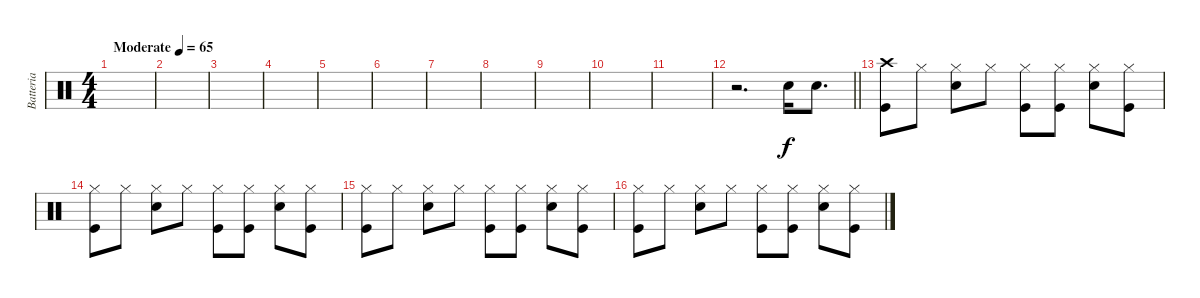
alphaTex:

\track ("Batteria" "Batteria") {instrument percussion}
\staff {score}
\articulation defaults
\ts (4 4)
\tempo (65 "Moderate")
\clef neutral
\ks c
|
|
|
|
|
|
|
|
|
|
|
\barLineRight lightlight
r.2{d} "Snare (hit) 2".16 "Snare (hit) 2".8{d} |
("Kick (hit)" "Crash high (hit)").8 "Hi-Hat (closed)".8 ("Snare (hit) 2" "Hi-Hat (closed)").8 "Hi-Hat (closed)".8 ("Kick (hit)" "Hi-Hat (closed)").8 ("Kick (hit)" "Hi-Hat (closed)").8 ("Snare (hit) 2" "Hi-Hat (closed)").8 ("Kick (hit)" "Hi-Hat (closed)").8 |
("Kick (hit)" "Hi-Hat (closed)").8 "Hi-Hat (closed)".8 ("Snare (hit) 2" "Hi-Hat (closed)").8 "Hi-Hat (closed)".8 ("Kick (hit)" "Hi-Hat (closed)").8 ("Kick (hit)" "Hi-Hat (closed)").8 ("Snare (hit) 2" "Hi-Hat (closed)").8 ("Kick (hit)" "Hi-Hat (closed)").8 |
("Kick (hit)" "Hi-Hat (closed)").8 "Hi-Hat (closed)".8 ("Snare (hit) 2" "Hi-Hat (closed)").8 "Hi-Hat (closed)".8 ("Kick (hit)" "Hi-Hat (closed)").8 ("Kick (hit)" "Hi-Hat (closed)").8 ("Snare (hit) 2" "Hi-Hat (closed)").8 ("Kick (hit)" "Hi-Hat (closed)").8 |
("Kick (hit)" "Hi-Hat (closed)").8 "Hi-Hat (closed)".8 ("Snare (hit) 2" "Hi-Hat (closed)").8 "Hi-Hat (closed)".8 ("Kick (hit)" "Hi-Hat (closed)").8 ("Kick (hit)" "Hi-Hat (closed)").8 ("Snare (hit) 2" "Hi-Hat (closed)").8 ("Kick (hit)" "Hi-Hat (closed)").8
